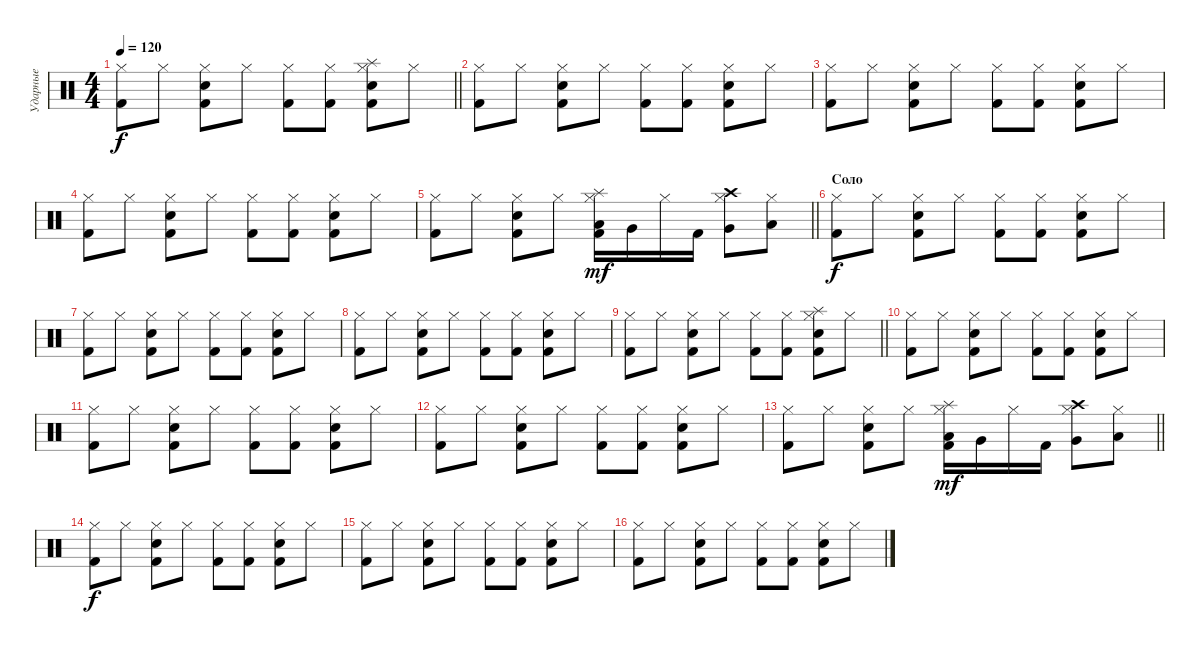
\track ("Ударные" "Ударные") {solo instrument percussion}
\staff {score}
\articulation defaults
\ts (4 4)
\tempo 120
\clef neutral
\barLineRight lightlight
\ks c
("Hi-Hat (closed)" "Kick (hit) 2").8{dy f} "Hi-Hat (closed)".8 ("Hi-Hat (closed)" "Kick (hit) 2" "Electric Snare (hit)").8 "Hi-Hat (closed)".8 ("Hi-Hat (closed)" "Kick (hit) 2").8 ("Hi-Hat (closed)" "Kick (hit) 2").8 ("Hi-Hat (closed)" "Kick (hit) 2" "Electric Snare (hit)" "Splash (hit)").8 "Hi-Hat (closed)".8 |
("Hi-Hat (closed)" "Kick (hit) 2").8 "Hi-Hat (closed)".8 ("Hi-Hat (closed)" "Kick (hit) 2" "Electric Snare (hit)").8 "Hi-Hat (closed)".8 ("Hi-Hat (closed)" "Kick (hit) 2").8 ("Hi-Hat (closed)" "Kick (hit) 2").8 ("Hi-Hat (closed)" "Kick (hit) 2" "Electric Snare (hit)").8 "Hi-Hat (closed)".8 |
("Hi-Hat (closed)" "Kick (hit) 2").8 "Hi-Hat (closed)".8 ("Hi-Hat (closed)" "Kick (hit) 2" "Electric Snare (hit)").8 "Hi-Hat (closed)".8 ("Hi-Hat (closed)" "Kick (hit) 2").8 ("Hi-Hat (closed)" "Kick (hit) 2").8 ("Hi-Hat (closed)" "Kick (hit) 2" "Electric Snare (hit)").8 "Hi-Hat (closed)".8 |
("Hi-Hat (closed)" "Kick (hit) 2").8 "Hi-Hat (closed)".8 ("Hi-Hat (closed)" "Kick (hit) 2" "Electric Snare (hit)").8 "Hi-Hat (closed)".8 ("Hi-Hat (closed)" "Kick (hit) 2").8 ("Hi-Hat (closed)" "Kick (hit) 2").8 ("Hi-Hat (closed)" "Kick (hit) 2" "Electric Snare (hit)").8 "Hi-Hat (closed)".8 |
\barLineRight lightlight
("Hi-Hat (closed)" "Kick (hit) 2").8 "Hi-Hat (closed)".8 ("Hi-Hat (closed)" "Kick (hit) 2" "Electric Snare (hit)").8 "Hi-Hat (closed)".8 ("Low Tom (hit)" "Hi-Hat (closed)" "Kick (hit) 2" "Splash (hit)").16{dy mf} "Very Low Tom (hit)".16 "Hi-Hat (closed)".16 "Kick (hit) 2".16 ("Very Low Tom (hit)" "Hi-Hat (closed)" "Crash high (hit)").8 ("Low Floor Tom (hit)" "Hi-Hat (closed)").8 |
\section ("" "Соло")
("Hi-Hat (closed)" "Kick (hit) 2").8{dy f} "Hi-Hat (closed)".8 ("Hi-Hat (closed)" "Kick (hit) 2" "Electric Snare (hit)").8 "Hi-Hat (closed)".8 ("Hi-Hat (closed)" "Kick (hit) 2").8 ("Hi-Hat (closed)" "Kick (hit) 2").8 ("Hi-Hat (closed)" "Kick (hit) 2" "Electric Snare (hit)").8 "Hi-Hat (closed)".8 |
("Hi-Hat (closed)" "Kick (hit) 2").8 "Hi-Hat (closed)".8 ("Hi-Hat (closed)" "Kick (hit) 2" "Electric Snare (hit)").8 "Hi-Hat (closed)".8 ("Hi-Hat (closed)" "Kick (hit) 2").8 ("Hi-Hat (closed)" "Kick (hit) 2").8 ("Hi-Hat (closed)" "Kick (hit) 2" "Electric Snare (hit)").8 "Hi-Hat (closed)".8 |
("Hi-Hat (closed)" "Kick (hit) 2").8 "Hi-Hat (closed)".8 ("Hi-Hat (closed)" "Kick (hit) 2" "Electric Snare (hit)").8 "Hi-Hat (closed)".8 ("Hi-Hat (closed)" "Kick (hit) 2").8 ("Hi-Hat (closed)" "Kick (hit) 2").8 ("Hi-Hat (closed)" "Kick (hit) 2" "Electric Snare (hit)").8 "Hi-Hat (closed)".8 |
\barLineRight lightlight
("Hi-Hat (closed)" "Kick (hit) 2").8 "Hi-Hat (closed)".8 ("Hi-Hat (closed)" "Kick (hit) 2" "Electric Snare (hit)").8 "Hi-Hat (closed)".8 ("Hi-Hat (closed)" "Kick (hit) 2").8 ("Hi-Hat (closed)" "Kick (hit) 2").8 ("Hi-Hat (closed)" "Kick (hit) 2" "Electric Snare (hit)" "Splash (hit)").8 "Hi-Hat (closed)".8 |
("Hi-Hat (closed)" "Kick (hit) 2").8 "Hi-Hat (closed)".8 ("Hi-Hat (closed)" "Kick (hit) 2" "Electric Snare (hit)").8 "Hi-Hat (closed)".8 ("Hi-Hat (closed)" "Kick (hit) 2").8 ("Hi-Hat (closed)" "Kick (hit) 2").8 ("Hi-Hat (closed)" "Kick (hit) 2" "Electric Snare (hit)").8 "Hi-Hat (closed)".8 |
("Hi-Hat (closed)" "Kick (hit) 2").8 "Hi-Hat (closed)".8 ("Hi-Hat (closed)" "Kick (hit) 2" "Electric Snare (hit)").8 "Hi-Hat (closed)".8 ("Hi-Hat (closed)" "Kick (hit) 2").8 ("Hi-Hat (closed)" "Kick (hit) 2").8 ("Hi-Hat (closed)" "Kick (hit) 2" "Electric Snare (hit)").8 "Hi-Hat (closed)".8 |
("Hi-Hat (closed)" "Kick (hit) 2").8 "Hi-Hat (closed)".8 ("Hi-Hat (closed)" "Kick (hit) 2" "Electric Snare (hit)").8 "Hi-Hat (closed)".8 ("Hi-Hat (closed)" "Kick (hit) 2").8 ("Hi-Hat (closed)" "Kick (hit) 2").8 ("Hi-Hat (closed)" "Kick (hit) 2" "Electric Snare (hit)").8 "Hi-Hat (closed)".8 |
\barLineRight lightlight
("Hi-Hat (closed)" "Kick (hit) 2").8 "Hi-Hat (closed)".8 ("Hi-Hat (closed)" "Kick (hit) 2" "Electric Snare (hit)").8 "Hi-Hat (closed)".8 ("Low Tom (hit)" "Hi-Hat (closed)" "Kick (hit) 2" "Splash (hit)").16{dy mf} "Very Low Tom (hit)".16 "Hi-Hat (closed)".16 "Kick (hit) 2".16 ("Very Low Tom (hit)" "Hi-Hat (closed)" "Crash high (hit)").8 ("Low Floor Tom (hit)" "Hi-Hat (closed)").8 |
("Hi-Hat (closed)" "Kick (hit) 2").8{dy f} "Hi-Hat (closed)".8 ("Hi-Hat (closed)" "Kick (hit) 2" "Electric Snare (hit)").8 "Hi-Hat (closed)".8 ("Hi-Hat (closed)" "Kick (hit) 2").8 ("Hi-Hat (closed)" "Kick (hit) 2").8 ("Hi-Hat (closed)" "Kick (hit) 2" "Electric Snare (hit)").8 "Hi-Hat (closed)".8 |
("Hi-Hat (closed)" "Kick (hit) 2").8 "Hi-Hat (closed)".8 ("Hi-Hat (closed)" "Kick (hit) 2" "Electric Snare (hit)").8 "Hi-Hat (closed)".8 ("Hi-Hat (closed)" "Kick (hit) 2").8 ("Hi-Hat (closed)" "Kick (hit) 2").8 ("Hi-Hat (closed)" "Kick (hit) 2" "Electric Snare (hit)").8 "Hi-Hat (closed)".8 |
("Hi-Hat (closed)" "Kick (hit) 2").8 "Hi-Hat (closed)".8 ("Hi-Hat (closed)" "Kick (hit) 2" "Electric Snare (hit)").8 "Hi-Hat (closed)".8 ("Hi-Hat (closed)" "Kick (hit) 2").8 ("Hi-Hat (closed)" "Kick (hit) 2").8 ("Hi-Hat (closed)" "Kick (hit) 2" "Electric Snare (hit)").8 "Hi-Hat (closed)".8
